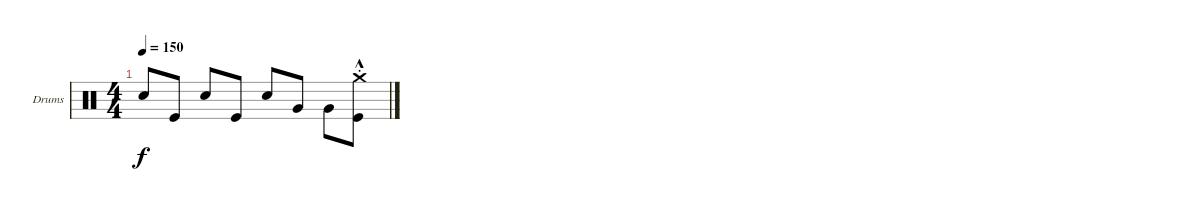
\defaultSystemsLayout 4
\bracketExtendMode groupsimilarinstruments
\firstSystemTrackNameOrientation horizontal
\otherSystemsTrackNameOrientation horizontal
\track ("Drumkit" "Drums") {instrument percussion}
\staff {score}
\articulation defaults
\ts (4 4)
\tempo 150
\clef neutral
\ks c "Snare (hit) 2".8{dy f} "Kick (hit)".8 "Snare (hit) 2".8 "Kick (hit)".8 "Snare (hit) 2".8 "Very Low Tom (hit)".8 "Very Low Tom (hit)".8
("Kick (hit)"{hac st} "Crash medium (hit)"{hac st}).8
